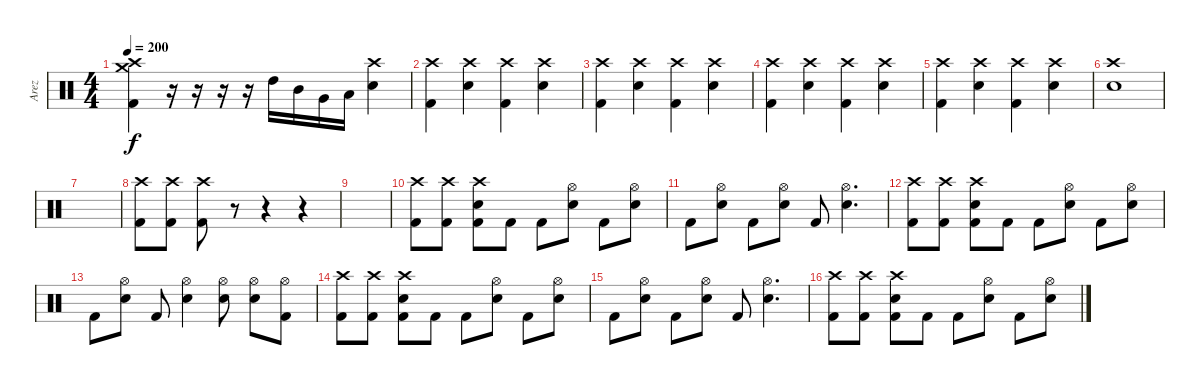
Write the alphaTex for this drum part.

\track ("Arez" "Arez") {instrument percussion}
\staff {score}
\articulation defaults
\ts (4 4)
\tempo 200
\clef neutral
\ks c
("Crash high (hit)" "Crash medium (hit)" "Kick (hit) 2").4{dy f} r.16 r.16 r.16 r.16 "High Tom (hit)".16 "Mid Tom (hit)".16 "Very Low Tom (hit)".16 "Low Floor Tom (hit)".16 ("Crash high (hit)" "Electric Snare (hit)").4 |
("Kick (hit) 2" "Crash high (hit)").4 ("Crash high (hit)" "Electric Snare (hit)").4 ("Kick (hit) 2" "Crash high (hit)").4 ("Crash high (hit)" "Electric Snare (hit)").4 |
("Kick (hit) 2" "Crash high (hit)").4 ("Crash high (hit)" "Electric Snare (hit)").4 ("Kick (hit) 2" "Crash high (hit)").4 ("Crash high (hit)" "Electric Snare (hit)").4 |
("Kick (hit) 2" "Crash high (hit)").4 ("Crash high (hit)" "Electric Snare (hit)").4 ("Kick (hit) 2" "Crash high (hit)").4 ("Crash high (hit)" "Electric Snare (hit)").4 |
("Kick (hit) 2" "Crash high (hit)").4 ("Crash high (hit)" "Electric Snare (hit)").4 ("Kick (hit) 2" "Crash high (hit)").4 ("Crash high (hit)" "Electric Snare (hit)").4 |
("Crash high (hit)" "Electric Snare (hit)").1 |
|
("Crash high (hit)" "Kick (hit) 2").8 ("Crash high (hit)" "Kick (hit) 2").8 ("Crash high (hit)" "Kick (hit) 2").8 r.8 r.4 r.4 |
|
("Kick (hit) 2" "Crash high (hit)").8 ("Kick (hit) 2" "Crash high (hit)").8 ("Kick (hit) 2" "Crash high (hit)" "Electric Snare (hit)").8 "Kick (hit) 2".8 "Kick (hit) 2".8 ("Hi-Hat (open)" "Electric Snare (hit)").8 "Kick (hit) 2".8 ("Hi-Hat (open)" "Electric Snare (hit)").8 |
"Kick (hit) 2".8 ("Hi-Hat (open)" "Electric Snare (hit)").8 "Kick (hit) 2".8 ("Hi-Hat (open)" "Electric Snare (hit)").8 "Kick (hit) 2".8 ("Hi-Hat (open)" "Electric Snare (hit)").4{d} |
("Kick (hit) 2" "Crash high (hit)").8 ("Kick (hit) 2" "Crash high (hit)").8 ("Kick (hit) 2" "Crash high (hit)" "Electric Snare (hit)").8 "Kick (hit) 2".8 "Kick (hit) 2".8 ("Hi-Hat (open)" "Electric Snare (hit)").8 "Kick (hit) 2".8 ("Hi-Hat (open)" "Electric Snare (hit)").8 |
"Kick (hit) 2".8 ("Hi-Hat (open)" "Electric Snare (hit)").8 "Kick (hit) 2".8 ("Hi-Hat (open)" "Electric Snare (hit)").4 ("Hi-Hat (open)" "Electric Snare (hit)").8 ("Electric Snare (hit)" "Hi-Hat (open)").8 ("Hi-Hat (open)" "Kick (hit) 2").8 |
("Kick (hit) 2" "Crash high (hit)").8 ("Kick (hit) 2" "Crash high (hit)").8 ("Kick (hit) 2" "Crash high (hit)" "Electric Snare (hit)").8 "Kick (hit) 2".8 "Kick (hit) 2".8 ("Hi-Hat (open)" "Electric Snare (hit)").8 "Kick (hit) 2".8 ("Hi-Hat (open)" "Electric Snare (hit)").8 |
"Kick (hit) 2".8 ("Hi-Hat (open)" "Electric Snare (hit)").8 "Kick (hit) 2".8 ("Hi-Hat (open)" "Electric Snare (hit)").8 "Kick (hit) 2".8 ("Hi-Hat (open)" "Electric Snare (hit)").4{d} |
("Kick (hit) 2" "Crash high (hit)").8 ("Kick (hit) 2" "Crash high (hit)").8 ("Kick (hit) 2" "Crash high (hit)" "Electric Snare (hit)").8 "Kick (hit) 2".8 "Kick (hit) 2".8 ("Hi-Hat (open)" "Electric Snare (hit)").8 "Kick (hit) 2".8 ("Hi-Hat (open)" "Electric Snare (hit)").8
